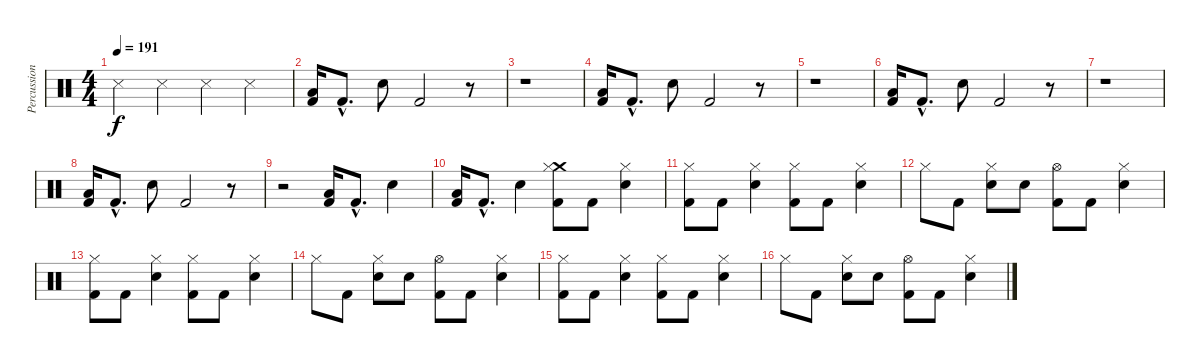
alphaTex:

\track ("Percussions" "Percussion") {instrument percussion}
\staff {score}
\articulation defaults
\ts (4 4)
\tempo 191
\clef neutral
\ks c "Metronome (hit)".4{dy f} "Metronome (hit)".4 "Metronome (hit)".4 "Metronome (hit)".4
|
("Kick (hit) 2" "Low Tom (hit)").16 "Kick (hit) 2"{hac}.8{d} "Snare (hit) 2".8 "Kick (hit) 2".2 r.8 |
r.1 |
("Kick (hit) 2" "Low Tom (hit)").16 "Kick (hit) 2"{hac}.8{d} "Snare (hit) 2".8 "Kick (hit) 2".2 r.8 |
r.1 |
("Kick (hit) 2" "Low Tom (hit)").16 "Kick (hit) 2"{hac}.8{d} "Snare (hit) 2".8 "Kick (hit) 2".2 r.8 |
r.1 |
("Kick (hit) 2" "Low Tom (hit)").16 "Kick (hit) 2"{hac}.8{d} "Snare (hit) 2".8 "Kick (hit) 2".2 r.8 |
r.2 ("Kick (hit) 2" "Low Tom (hit)").16 "Kick (hit) 2"{hac}.8{d} "Snare (hit) 2".4 |
("Kick (hit) 2" "Low Tom (hit)").16 "Kick (hit) 2"{hac}.8{d} "Snare (hit) 2".4 ("Kick (hit) 2" "Crash medium (hit)" "Hi-Hat (closed)").8 "Kick (hit) 2".8 ("Snare (hit) 2" "Hi-Hat (closed)").4 |
("Kick (hit) 2" "Hi-Hat (closed)").8 "Kick (hit) 2".8 ("Snare (hit) 2" "Hi-Hat (closed)").4 ("Kick (hit) 2" "Hi-Hat (closed)").8 "Kick (hit) 2".8 ("Snare (hit) 2" "Hi-Hat (closed)").4 |
"Hi-Hat (closed)".8 "Kick (hit) 2".8 ("Snare (hit) 2" "Hi-Hat (closed)").8 "Snare (hit) 2".8 ("Kick (hit) 2" "Hi-Hat (open)").8 "Kick (hit) 2".8 ("Snare (hit) 2" "Hi-Hat (closed)").4 |
("Kick (hit) 2" "Hi-Hat (closed)").8 "Kick (hit) 2".8 ("Snare (hit) 2" "Hi-Hat (closed)").4 ("Kick (hit) 2" "Hi-Hat (closed)").8 "Kick (hit) 2".8 ("Snare (hit) 2" "Hi-Hat (closed)").4 |
"Hi-Hat (closed)".8 "Kick (hit) 2".8 ("Snare (hit) 2" "Hi-Hat (closed)").8 "Snare (hit) 2".8 ("Kick (hit) 2" "Hi-Hat (open)").8 "Kick (hit) 2".8 ("Snare (hit) 2" "Hi-Hat (closed)").4 |
("Kick (hit) 2" "Hi-Hat (closed)").8 "Kick (hit) 2".8 ("Snare (hit) 2" "Hi-Hat (closed)").4 ("Kick (hit) 2" "Hi-Hat (closed)").8 "Kick (hit) 2".8 ("Snare (hit) 2" "Hi-Hat (closed)").4 |
"Hi-Hat (closed)".8 "Kick (hit) 2".8 ("Snare (hit) 2" "Hi-Hat (closed)").8 "Snare (hit) 2".8 ("Kick (hit) 2" "Hi-Hat (open)").8 "Kick (hit) 2".8 ("Snare (hit) 2" "Hi-Hat (closed)").4
